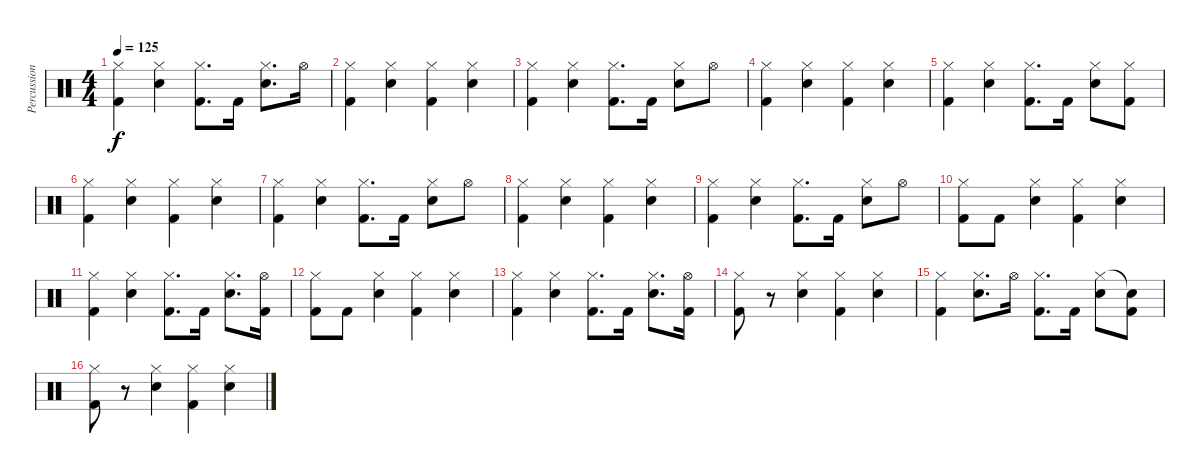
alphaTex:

\track ("Percussion" "Percussion") {instrument percussion}
\staff {score}
\articulation defaults
\ts (4 4)
\tempo 125
\clef neutral
\ks c
("Hi-Hat (closed)" "Kick (hit) 2").4{dy f} ("Hi-Hat (closed)" "Electric Snare (hit)").4 ("Hi-Hat (closed)" "Kick (hit) 2").8{d} "Kick (hit) 2".16 ("Hi-Hat (closed)" "Electric Snare (hit)").8{d} "Hi-Hat (open)".16 |
("Hi-Hat (closed)" "Kick (hit) 2").4 ("Hi-Hat (closed)" "Electric Snare (hit)").4 ("Hi-Hat (closed)" "Kick (hit) 2").4 ("Hi-Hat (closed)" "Electric Snare (hit)").4 |
("Hi-Hat (closed)" "Kick (hit) 2").4 ("Hi-Hat (closed)" "Electric Snare (hit)").4 ("Hi-Hat (closed)" "Kick (hit) 2").8{d} "Kick (hit) 2".16 ("Hi-Hat (closed)" "Electric Snare (hit)").8 "Hi-Hat (open)".8 |
("Hi-Hat (closed)" "Kick (hit) 2").4 ("Hi-Hat (closed)" "Electric Snare (hit)").4 ("Hi-Hat (closed)" "Kick (hit) 2").4 ("Hi-Hat (closed)" "Electric Snare (hit)").4 |
("Hi-Hat (closed)" "Kick (hit) 2").4 ("Hi-Hat (closed)" "Electric Snare (hit)").4 ("Hi-Hat (closed)" "Kick (hit) 2").8{d} "Kick (hit) 2".16 ("Hi-Hat (closed)" "Electric Snare (hit)").8 ("Hi-Hat (closed)" "Kick (hit) 2").8 |
("Hi-Hat (closed)" "Kick (hit) 2").4 ("Hi-Hat (closed)" "Electric Snare (hit)").4 ("Hi-Hat (closed)" "Kick (hit) 2").4 ("Hi-Hat (closed)" "Electric Snare (hit)").4 |
("Hi-Hat (closed)" "Kick (hit) 2").4 ("Hi-Hat (closed)" "Electric Snare (hit)").4 ("Hi-Hat (closed)" "Kick (hit) 2").8{d} "Kick (hit) 2".16 ("Hi-Hat (closed)" "Electric Snare (hit)").8 "Hi-Hat (open)".8 |
("Hi-Hat (closed)" "Kick (hit) 2").4 ("Hi-Hat (closed)" "Electric Snare (hit)").4 ("Hi-Hat (closed)" "Kick (hit) 2").4 ("Hi-Hat (closed)" "Electric Snare (hit)").4 |
("Hi-Hat (closed)" "Kick (hit) 2").4 ("Hi-Hat (closed)" "Electric Snare (hit)").4 ("Hi-Hat (closed)" "Kick (hit) 2").8{d} "Kick (hit) 2".16 ("Hi-Hat (closed)" "Electric Snare (hit)").8 "Hi-Hat (open)".8 |
("Hi-Hat (closed)" "Kick (hit) 2").8 "Kick (hit) 2".8 ("Hi-Hat (closed)" "Electric Snare (hit)").4 ("Hi-Hat (closed)" "Kick (hit) 2").4 ("Hi-Hat (closed)" "Electric Snare (hit)").4 |
("Hi-Hat (closed)" "Kick (hit) 2").4 ("Hi-Hat (closed)" "Electric Snare (hit)").4 ("Hi-Hat (closed)" "Kick (hit) 2").8{d} "Kick (hit) 2".16 ("Hi-Hat (closed)" "Electric Snare (hit)").8{d} ("Hi-Hat (open)" "Kick (hit) 2").16 |
("Hi-Hat (closed)" "Kick (hit) 2").8 "Kick (hit) 2".8 ("Hi-Hat (closed)" "Electric Snare (hit)").4 ("Hi-Hat (closed)" "Kick (hit) 2").4 ("Hi-Hat (closed)" "Electric Snare (hit)").4 |
("Hi-Hat (closed)" "Kick (hit) 2").4 ("Hi-Hat (closed)" "Electric Snare (hit)").4 ("Hi-Hat (closed)" "Kick (hit) 2").8{d} "Kick (hit) 2".16 ("Hi-Hat (closed)" "Electric Snare (hit)").8{d} ("Hi-Hat (open)" "Kick (hit) 2").16 |
("Hi-Hat (closed)" "Kick (hit) 2").8 r.8 ("Hi-Hat (closed)" "Electric Snare (hit)").4 ("Hi-Hat (closed)" "Kick (hit) 2").4 ("Hi-Hat (closed)" "Electric Snare (hit)").4 |
("Hi-Hat (closed)" "Kick (hit) 2").4 ("Hi-Hat (closed)" "Electric Snare (hit)").8{d} "Hi-Hat (open)".16 ("Hi-Hat (closed)" "Kick (hit) 2").8{d} "Kick (hit) 2".16 ("Hi-Hat (closed)" "Electric Snare (hit)").8 ("Snare (hit)"{t} "Kick (hit) 2").8 |
("Hi-Hat (closed)" "Kick (hit) 2").8 r.8 ("Hi-Hat (closed)" "Electric Snare (hit)").4 ("Hi-Hat (closed)" "Kick (hit) 2").4 ("Hi-Hat (closed)" "Electric Snare (hit)").4
